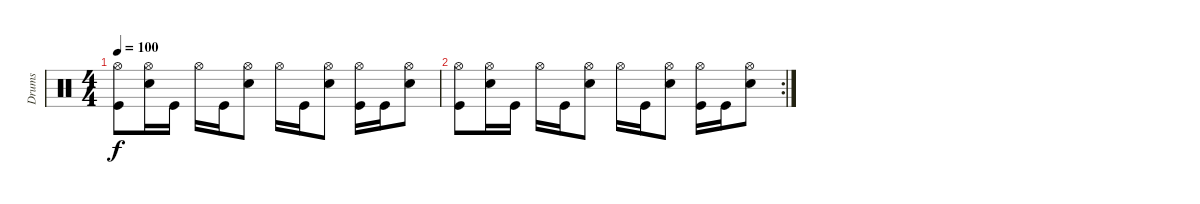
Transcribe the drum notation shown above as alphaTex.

\track ("Drums" "Drums") {instrument percussion}
\staff {score}
\articulation defaults
\ts (4 4)
\tempo 100
\clef neutral
\ks c
("Hi-Hat (open)" "Kick (hit)").8{dy f} ("Hi-Hat (open)" "Snare (hit) 2").16 "Kick (hit)".16 "Hi-Hat (open)".16 "Kick (hit)".16 ("Hi-Hat (open)" "Snare (hit) 2").8 "Hi-Hat (open)".16 "Kick (hit)".16 ("Hi-Hat (open)" "Snare (hit) 2").8 ("Hi-Hat (open)" "Kick (hit)").16 "Kick (hit)".16 ("Hi-Hat (open)" "Snare (hit) 2").8 |
\rc 2
("Hi-Hat (open)" "Kick (hit)").8 ("Hi-Hat (open)" "Snare (hit) 2").16 "Kick (hit)".16 "Hi-Hat (open)".16 "Kick (hit)".16 ("Hi-Hat (open)" "Snare (hit) 2").8 "Hi-Hat (open)".16 "Kick (hit)".16 ("Hi-Hat (open)" "Snare (hit) 2").8 ("Hi-Hat (open)" "Kick (hit)").16 "Kick (hit)".16 ("Hi-Hat (open)" "Snare (hit) 2").8
